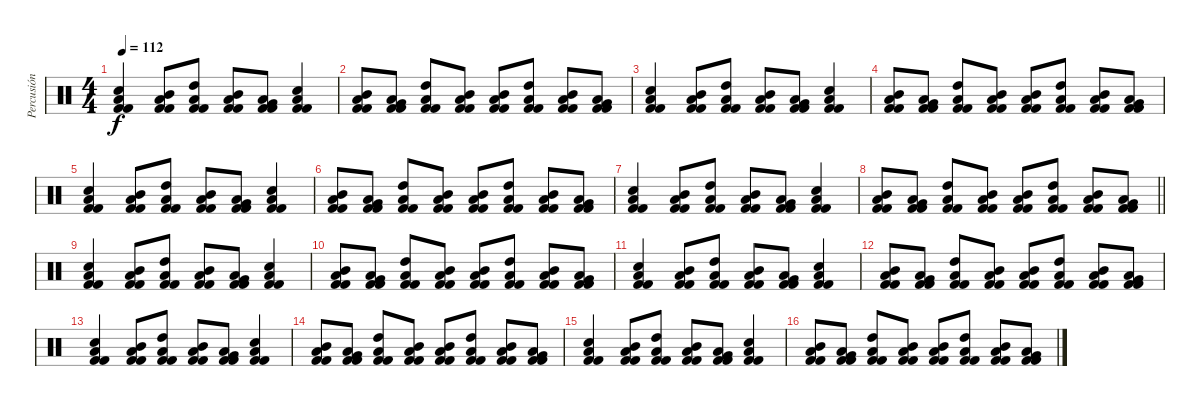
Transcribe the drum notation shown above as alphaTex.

\track ("Percusión" "Percusión") {instrument percussion}
\staff {score}
\articulation defaults
\ts (4 4)
\tempo 112
\clef neutral
\ks c
("Kick (hit) 2" "Electric Snare (hit)" "Low Tom (hit)" "Kick (hit) 2").4{dy f} ("Kick (hit) 2" "Mid Tom (hit)" "Low Tom (hit)" "Kick (hit) 2").8 ("Kick (hit) 2" "High Tom (hit)" "Low Tom (hit)" "Kick (hit) 2").8 ("Kick (hit) 2" "Mid Tom (hit)" "Low Tom (hit)" "Kick (hit) 2").8 ("Kick (hit) 2" "Low Tom (hit)" "Very Low Tom (hit)" "Kick (hit) 2").8 ("Kick (hit) 2" "Electric Snare (hit)" "Low Tom (hit)" "Kick (hit) 2").4 |
("Kick (hit) 2" "Low Tom (hit)" "Mid Tom (hit)" "Kick (hit) 2").8 ("Kick (hit) 2" "Very Low Tom (hit)" "Low Tom (hit)" "Kick (hit) 2").8 ("Kick (hit) 2" "High Tom (hit)" "Low Tom (hit)" "Kick (hit) 2").8 ("Kick (hit) 2" "Low Tom (hit)" "Mid Tom (hit)" "Kick (hit) 2").8 ("Kick (hit) 2" "Low Tom (hit)" "Mid Tom (hit)" "Kick (hit) 2").8 ("Kick (hit) 2" "High Tom (hit)" "Low Tom (hit)" "Kick (hit) 2").8 ("Kick (hit) 2" "Low Tom (hit)" "Mid Tom (hit)" "Kick (hit) 2").8 ("Kick (hit) 2" "Very Low Tom (hit)" "Low Tom (hit)" "Kick (hit) 2").8 |
("Kick (hit) 2" "Electric Snare (hit)" "Low Tom (hit)" "Kick (hit) 2").4 ("Kick (hit) 2" "Mid Tom (hit)" "Low Tom (hit)" "Kick (hit) 2").8 ("Kick (hit) 2" "High Tom (hit)" "Low Tom (hit)" "Kick (hit) 2").8 ("Kick (hit) 2" "Mid Tom (hit)" "Low Tom (hit)" "Kick (hit) 2").8 ("Kick (hit) 2" "Low Tom (hit)" "Very Low Tom (hit)" "Kick (hit) 2").8 ("Kick (hit) 2" "Electric Snare (hit)" "Low Tom (hit)" "Kick (hit) 2").4 |
("Kick (hit) 2" "Low Tom (hit)" "Mid Tom (hit)" "Kick (hit) 2").8 ("Kick (hit) 2" "Very Low Tom (hit)" "Low Tom (hit)" "Kick (hit) 2").8 ("Kick (hit) 2" "High Tom (hit)" "Low Tom (hit)" "Kick (hit) 2").8 ("Kick (hit) 2" "Low Tom (hit)" "Mid Tom (hit)" "Kick (hit) 2").8 ("Kick (hit) 2" "Low Tom (hit)" "Mid Tom (hit)" "Kick (hit) 2").8 ("Kick (hit) 2" "High Tom (hit)" "Low Tom (hit)" "Kick (hit) 2").8 ("Kick (hit) 2" "Low Tom (hit)" "Mid Tom (hit)" "Kick (hit) 2").8 ("Kick (hit) 2" "Very Low Tom (hit)" "Low Tom (hit)" "Kick (hit) 2").8 |
("Kick (hit) 2" "Electric Snare (hit)" "Low Tom (hit)" "Kick (hit) 2").4 ("Kick (hit) 2" "Mid Tom (hit)" "Low Tom (hit)" "Kick (hit) 2").8 ("Kick (hit) 2" "High Tom (hit)" "Low Tom (hit)" "Kick (hit) 2").8 ("Kick (hit) 2" "Mid Tom (hit)" "Low Tom (hit)" "Kick (hit) 2").8 ("Kick (hit) 2" "Low Tom (hit)" "Very Low Tom (hit)" "Kick (hit) 2").8 ("Kick (hit) 2" "Electric Snare (hit)" "Low Tom (hit)" "Kick (hit) 2").4 |
("Kick (hit) 2" "Low Tom (hit)" "Mid Tom (hit)" "Kick (hit) 2").8 ("Kick (hit) 2" "Very Low Tom (hit)" "Low Tom (hit)" "Kick (hit) 2").8 ("Kick (hit) 2" "High Tom (hit)" "Low Tom (hit)" "Kick (hit) 2").8 ("Kick (hit) 2" "Low Tom (hit)" "Mid Tom (hit)" "Kick (hit) 2").8 ("Kick (hit) 2" "Low Tom (hit)" "Mid Tom (hit)" "Kick (hit) 2").8 ("Kick (hit) 2" "High Tom (hit)" "Low Tom (hit)" "Kick (hit) 2").8 ("Kick (hit) 2" "Low Tom (hit)" "Mid Tom (hit)" "Kick (hit) 2").8 ("Kick (hit) 2" "Very Low Tom (hit)" "Low Tom (hit)" "Kick (hit) 2").8 |
("Kick (hit) 2" "Electric Snare (hit)" "Low Tom (hit)" "Kick (hit) 2").4 ("Kick (hit) 2" "Mid Tom (hit)" "Low Tom (hit)" "Kick (hit) 2").8 ("Kick (hit) 2" "High Tom (hit)" "Low Tom (hit)" "Kick (hit) 2").8 ("Kick (hit) 2" "Mid Tom (hit)" "Low Tom (hit)" "Kick (hit) 2").8 ("Kick (hit) 2" "Low Tom (hit)" "Very Low Tom (hit)" "Kick (hit) 2").8 ("Kick (hit) 2" "Electric Snare (hit)" "Low Tom (hit)" "Kick (hit) 2").4 |
\barLineRight lightlight
("Kick (hit) 2" "Low Tom (hit)" "Mid Tom (hit)" "Kick (hit) 2").8 ("Kick (hit) 2" "Very Low Tom (hit)" "Low Tom (hit)" "Kick (hit) 2").8 ("Kick (hit) 2" "High Tom (hit)" "Low Tom (hit)" "Kick (hit) 2").8 ("Kick (hit) 2" "Low Tom (hit)" "Mid Tom (hit)" "Kick (hit) 2").8 ("Kick (hit) 2" "Low Tom (hit)" "Mid Tom (hit)" "Kick (hit) 2").8 ("Kick (hit) 2" "High Tom (hit)" "Low Tom (hit)" "Kick (hit) 2").8 ("Kick (hit) 2" "Low Tom (hit)" "Mid Tom (hit)" "Kick (hit) 2").8 ("Kick (hit) 2" "Very Low Tom (hit)" "Low Tom (hit)" "Kick (hit) 2").8 |
("Kick (hit) 2" "Electric Snare (hit)" "Low Tom (hit)" "Kick (hit) 2").4 ("Kick (hit) 2" "Mid Tom (hit)" "Low Tom (hit)" "Kick (hit) 2").8 ("Kick (hit) 2" "High Tom (hit)" "Low Tom (hit)" "Kick (hit) 2").8 ("Kick (hit) 2" "Mid Tom (hit)" "Low Tom (hit)" "Kick (hit) 2").8 ("Kick (hit) 2" "Low Tom (hit)" "Very Low Tom (hit)" "Kick (hit) 2").8 ("Kick (hit) 2" "Electric Snare (hit)" "Low Tom (hit)" "Kick (hit) 2").4 |
("Kick (hit) 2" "Low Tom (hit)" "Mid Tom (hit)" "Kick (hit) 2").8 ("Kick (hit) 2" "Very Low Tom (hit)" "Low Tom (hit)" "Kick (hit) 2").8 ("Kick (hit) 2" "High Tom (hit)" "Low Tom (hit)" "Kick (hit) 2").8 ("Kick (hit) 2" "Low Tom (hit)" "Mid Tom (hit)" "Kick (hit) 2").8 ("Kick (hit) 2" "Low Tom (hit)" "Mid Tom (hit)" "Kick (hit) 2").8 ("Kick (hit) 2" "High Tom (hit)" "Low Tom (hit)" "Kick (hit) 2").8 ("Kick (hit) 2" "Low Tom (hit)" "Mid Tom (hit)" "Kick (hit) 2").8 ("Kick (hit) 2" "Very Low Tom (hit)" "Low Tom (hit)" "Kick (hit) 2").8 |
("Kick (hit) 2" "Electric Snare (hit)" "Low Tom (hit)" "Kick (hit) 2").4 ("Kick (hit) 2" "Mid Tom (hit)" "Low Tom (hit)" "Kick (hit) 2").8 ("Kick (hit) 2" "High Tom (hit)" "Low Tom (hit)" "Kick (hit) 2").8 ("Kick (hit) 2" "Mid Tom (hit)" "Low Tom (hit)" "Kick (hit) 2").8 ("Kick (hit) 2" "Low Tom (hit)" "Very Low Tom (hit)" "Kick (hit) 2").8 ("Kick (hit) 2" "Electric Snare (hit)" "Low Tom (hit)" "Kick (hit) 2").4 |
("Kick (hit) 2" "Low Tom (hit)" "Mid Tom (hit)" "Kick (hit) 2").8 ("Kick (hit) 2" "Very Low Tom (hit)" "Low Tom (hit)" "Kick (hit) 2").8 ("Kick (hit) 2" "High Tom (hit)" "Low Tom (hit)" "Kick (hit) 2").8 ("Kick (hit) 2" "Low Tom (hit)" "Mid Tom (hit)" "Kick (hit) 2").8 ("Kick (hit) 2" "Low Tom (hit)" "Mid Tom (hit)" "Kick (hit) 2").8 ("Kick (hit) 2" "High Tom (hit)" "Low Tom (hit)" "Kick (hit) 2").8 ("Kick (hit) 2" "Low Tom (hit)" "Mid Tom (hit)" "Kick (hit) 2").8 ("Kick (hit) 2" "Very Low Tom (hit)" "Low Tom (hit)" "Kick (hit) 2").8 |
("Kick (hit) 2" "Electric Snare (hit)" "Low Tom (hit)" "Kick (hit) 2").4 ("Kick (hit) 2" "Mid Tom (hit)" "Low Tom (hit)" "Kick (hit) 2").8 ("Kick (hit) 2" "High Tom (hit)" "Low Tom (hit)" "Kick (hit) 2").8 ("Kick (hit) 2" "Mid Tom (hit)" "Low Tom (hit)" "Kick (hit) 2").8 ("Kick (hit) 2" "Low Tom (hit)" "Very Low Tom (hit)" "Kick (hit) 2").8 ("Kick (hit) 2" "Electric Snare (hit)" "Low Tom (hit)" "Kick (hit) 2").4 |
("Kick (hit) 2" "Low Tom (hit)" "Mid Tom (hit)" "Kick (hit) 2").8 ("Kick (hit) 2" "Very Low Tom (hit)" "Low Tom (hit)" "Kick (hit) 2").8 ("Kick (hit) 2" "High Tom (hit)" "Low Tom (hit)" "Kick (hit) 2").8 ("Kick (hit) 2" "Low Tom (hit)" "Mid Tom (hit)" "Kick (hit) 2").8 ("Kick (hit) 2" "Low Tom (hit)" "Mid Tom (hit)" "Kick (hit) 2").8 ("Kick (hit) 2" "High Tom (hit)" "Low Tom (hit)" "Kick (hit) 2").8 ("Kick (hit) 2" "Low Tom (hit)" "Mid Tom (hit)" "Kick (hit) 2").8 ("Kick (hit) 2" "Very Low Tom (hit)" "Low Tom (hit)" "Kick (hit) 2").8 |
("Kick (hit) 2" "Electric Snare (hit)" "Low Tom (hit)" "Kick (hit) 2").4 ("Kick (hit) 2" "Mid Tom (hit)" "Low Tom (hit)" "Kick (hit) 2").8 ("Kick (hit) 2" "High Tom (hit)" "Low Tom (hit)" "Kick (hit) 2").8 ("Kick (hit) 2" "Mid Tom (hit)" "Low Tom (hit)" "Kick (hit) 2").8 ("Kick (hit) 2" "Low Tom (hit)" "Very Low Tom (hit)" "Kick (hit) 2").8 ("Kick (hit) 2" "Electric Snare (hit)" "Low Tom (hit)" "Kick (hit) 2").4 |
("Kick (hit) 2" "Low Tom (hit)" "Mid Tom (hit)" "Kick (hit) 2").8 ("Kick (hit) 2" "Very Low Tom (hit)" "Low Tom (hit)" "Kick (hit) 2").8 ("Kick (hit) 2" "High Tom (hit)" "Low Tom (hit)" "Kick (hit) 2").8 ("Kick (hit) 2" "Low Tom (hit)" "Mid Tom (hit)" "Kick (hit) 2").8 ("Kick (hit) 2" "Low Tom (hit)" "Mid Tom (hit)" "Kick (hit) 2").8 ("Kick (hit) 2" "High Tom (hit)" "Low Tom (hit)" "Kick (hit) 2").8 ("Kick (hit) 2" "Low Tom (hit)" "Mid Tom (hit)" "Kick (hit) 2").8 ("Kick (hit) 2" "Very Low Tom (hit)" "Low Tom (hit)" "Kick (hit) 2").8
